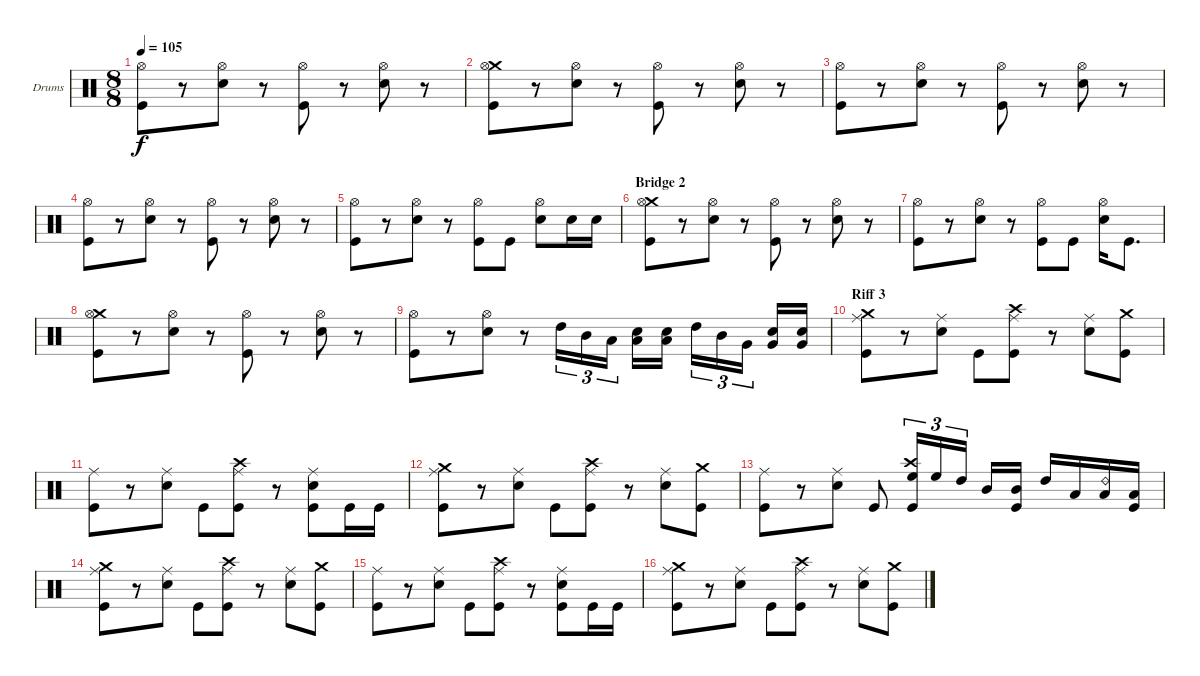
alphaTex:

\bracketExtendMode groupsimilarinstruments
\firstSystemTrackNameOrientation horizontal
\otherSystemsTrackNameOrientation horizontal
\track ("Drumkit" "Drums") {instrument percussion}
\staff {score}
\articulation defaults
\ts (8 8)
\tempo 105
\clef neutral
\ks c
("Hi-Hat (open)" "Kick (hit)").8{dy f} r.8 ("Hi-Hat (open)" "Snare (hit) 2").8 r.8 ("Hi-Hat (open)" "Kick (hit)").8 r.8 ("Hi-Hat (open)" "Snare (hit) 2").8 r.8 |
("Crash medium (hit)" "Hi-Hat (open)" "Kick (hit)").8 r.8 ("Hi-Hat (open)" "Snare (hit) 2").8 r.8 ("Hi-Hat (open)" "Kick (hit)").8 r.8 ("Hi-Hat (open)" "Snare (hit) 2").8 r.8 |
("Hi-Hat (open)" "Kick (hit)").8 r.8 ("Hi-Hat (open)" "Snare (hit) 2").8 r.8 ("Hi-Hat (open)" "Kick (hit)").8 r.8 ("Hi-Hat (open)" "Snare (hit) 2").8 r.8 |
("Hi-Hat (open)" "Kick (hit)").8 r.8 ("Hi-Hat (open)" "Snare (hit) 2").8 r.8 ("Hi-Hat (open)" "Kick (hit)").8 r.8 ("Hi-Hat (open)" "Snare (hit) 2").8 r.8 |
("Hi-Hat (open)" "Kick (hit)").8 r.8 ("Hi-Hat (open)" "Snare (hit) 2").8 r.8 ("Hi-Hat (open)" "Kick (hit)").8 "Kick (hit)".8 ("Hi-Hat (open)" "Snare (hit) 2").8 "Snare (hit) 2".16 "Snare (hit) 2".16 |
\section ("" "Bridge 2")
("Crash medium (hit)" "Hi-Hat (open)" "Kick (hit)").8 r.8 ("Hi-Hat (open)" "Snare (hit) 2").8 r.8 ("Hi-Hat (open)" "Kick (hit)").8 r.8 ("Hi-Hat (open)" "Snare (hit) 2").8 r.8 |
("Hi-Hat (open)" "Kick (hit)").8 r.8 ("Hi-Hat (open)" "Snare (hit) 2").8 r.8 ("Hi-Hat (open)" "Kick (hit)").8 "Kick (hit)".8 ("Hi-Hat (open)" "Snare (hit) 2").16 "Kick (hit)".8{d} |
("Crash medium (hit)" "Hi-Hat (open)" "Kick (hit)").8 r.8 ("Hi-Hat (open)" "Snare (hit) 2").8 r.8 ("Hi-Hat (open)" "Kick (hit)").8 r.8 ("Hi-Hat (open)" "Snare (hit) 2").8 r.8 |
("Hi-Hat (open)" "Kick (hit)").8 r.8 ("Hi-Hat (open)" "Snare (hit) 2").8 r.8 "High Tom (hit)".16{tu (3 2)} "Mid Tom (hit)".16{tu (3 2)} "Low Tom (hit)".16{tu (3 2)} ("Snare (hit) 2" "Low Tom (hit)").16 ("Snare (hit) 2" "Low Tom (hit)").16 "High Tom (hit)".16{tu (3 2)} "Mid Tom (hit)".16{tu (3 2)} "Very Low Tom (hit)".16{tu (3 2)} ("Snare (hit) 2" "Very Low Tom (hit)").16 ("Snare (hit) 2" "Very Low Tom (hit)").16 |
\section ("" "Riff 3")
("Crash medium (hit)" "Ride (middle)" "Kick (hit)").8 r.8 ("Ride (middle)" "Snare (hit) 2").8 "Kick (hit)".8 ("Crash high (hit)" "Ride (middle)" "Kick (hit)").8 r.8 ("Ride (middle)" "Snare (hit) 2").8 ("Crash medium (hit)" "Kick (hit)").8 |
("Ride (middle)" "Kick (hit)").8 r.8 ("Ride (middle)" "Snare (hit) 2").8 "Kick (hit)".8 ("Crash high (hit)" "Ride (middle)" "Kick (hit)").8 r.8 ("Ride (middle)" "Snare (hit) 2" "Kick (hit)").8 "Kick (hit)".16 "Kick (hit)".16 |
("Crash medium (hit)" "Ride (middle)" "Kick (hit)").8 r.8 ("Ride (middle)" "Snare (hit) 2").8 "Kick (hit)".8 ("Crash high (hit)" "Ride (middle)" "Kick (hit)").8 r.8 ("Ride (middle)" "Snare (hit) 2").8 ("Crash medium (hit)" "Kick (hit)").8 |
("Ride (middle)" "Kick (hit)").8 r.8 ("Ride (middle)" "Snare (hit) 2").8 "Kick (hit)".8 ("Crash high (hit)" "High Floor Tom (hit)" "Kick (hit)").16{tu (3 2)} "High Floor Tom (hit)".16{tu (3 2)} "High Tom (hit)".16{tu (3 2)} "Mid Tom (hit)".16 ("Mid Tom (hit)" "Kick (hit)").16 "High Tom (hit)".16 "Low Tom (hit)".16 ("Ride (bell) 2" "Low Tom (hit)").16 ("Low Tom (hit)" "Kick (hit)").16 |
("Crash medium (hit)" "Ride (middle)" "Kick (hit)").8 r.8 ("Ride (middle)" "Snare (hit) 2").8 "Kick (hit)".8 ("Crash high (hit)" "Ride (middle)" "Kick (hit)").8 r.8 ("Ride (middle)" "Snare (hit) 2").8 ("Crash medium (hit)" "Kick (hit)").8 |
("Ride (middle)" "Kick (hit)").8 r.8 ("Ride (middle)" "Snare (hit) 2").8 "Kick (hit)".8 ("Crash high (hit)" "Ride (middle)" "Kick (hit)").8 r.8 ("Ride (middle)" "Snare (hit) 2" "Kick (hit)").8 "Kick (hit)".16 "Kick (hit)".16 |
("Crash medium (hit)" "Ride (middle)" "Kick (hit)").8 r.8 ("Ride (middle)" "Snare (hit) 2").8 "Kick (hit)".8 ("Crash high (hit)" "Ride (middle)" "Kick (hit)").8 r.8 ("Ride (middle)" "Snare (hit) 2").8 ("Crash medium (hit)" "Kick (hit)").8
